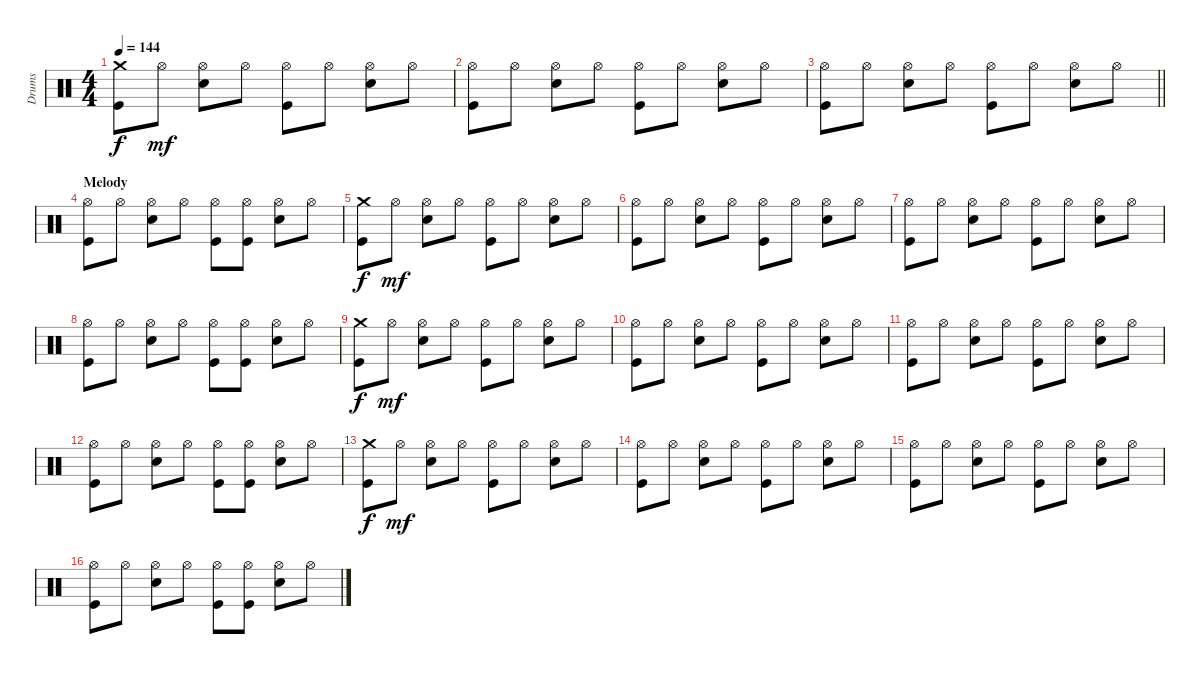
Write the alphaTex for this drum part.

\track ("Drums" "Drums") {instrument percussion}
\staff {score}
\articulation defaults
\ts (4 4)
\tempo 144
\clef neutral
\ks c
("Crash medium (hit)" "Kick (hit)").8{dy f} "Hi-Hat (open)".8{dy mf} ("Hi-Hat (open)" "Snare (hit) 2").8 "Hi-Hat (open)".8 ("Hi-Hat (open)" "Kick (hit)").8 "Hi-Hat (open)".8 ("Hi-Hat (open)" "Snare (hit) 2").8 "Hi-Hat (open)".8 |
("Hi-Hat (open)" "Kick (hit)").8 "Hi-Hat (open)".8 ("Hi-Hat (open)" "Snare (hit) 2").8 "Hi-Hat (open)".8 ("Hi-Hat (open)" "Kick (hit)").8 "Hi-Hat (open)".8 ("Hi-Hat (open)" "Snare (hit) 2").8 "Hi-Hat (open)".8 |
\barLineRight lightlight
("Hi-Hat (open)" "Kick (hit)").8 "Hi-Hat (open)".8 ("Hi-Hat (open)" "Snare (hit) 2").8 "Hi-Hat (open)".8 ("Hi-Hat (open)" "Kick (hit)").8 "Hi-Hat (open)".8 ("Hi-Hat (open)" "Snare (hit) 2").8 "Hi-Hat (open)".8 |
\section ("" "Melody")
("Hi-Hat (open)" "Kick (hit)").8 "Hi-Hat (open)".8 ("Hi-Hat (open)" "Snare (hit) 2").8 "Hi-Hat (open)".8 ("Hi-Hat (open)" "Kick (hit)").8 ("Hi-Hat (open)" "Kick (hit)").8 ("Hi-Hat (open)" "Snare (hit) 2").8 "Hi-Hat (open)".8 |
("Crash medium (hit)" "Kick (hit)").8{dy f} "Hi-Hat (open)".8{dy mf} ("Hi-Hat (open)" "Snare (hit) 2").8 "Hi-Hat (open)".8 ("Hi-Hat (open)" "Kick (hit)").8 "Hi-Hat (open)".8 ("Hi-Hat (open)" "Snare (hit) 2").8 "Hi-Hat (open)".8 |
("Hi-Hat (open)" "Kick (hit)").8 "Hi-Hat (open)".8 ("Hi-Hat (open)" "Snare (hit) 2").8 "Hi-Hat (open)".8 ("Hi-Hat (open)" "Kick (hit)").8 "Hi-Hat (open)".8 ("Hi-Hat (open)" "Snare (hit) 2").8 "Hi-Hat (open)".8 |
("Hi-Hat (open)" "Kick (hit)").8 "Hi-Hat (open)".8 ("Hi-Hat (open)" "Snare (hit) 2").8 "Hi-Hat (open)".8 ("Hi-Hat (open)" "Kick (hit)").8 "Hi-Hat (open)".8 ("Hi-Hat (open)" "Snare (hit) 2").8 "Hi-Hat (open)".8 |
("Hi-Hat (open)" "Kick (hit)").8 "Hi-Hat (open)".8 ("Hi-Hat (open)" "Snare (hit) 2").8 "Hi-Hat (open)".8 ("Hi-Hat (open)" "Kick (hit)").8 ("Hi-Hat (open)" "Kick (hit)").8 ("Hi-Hat (open)" "Snare (hit) 2").8 "Hi-Hat (open)".8 |
("Crash medium (hit)" "Kick (hit)").8{dy f} "Hi-Hat (open)".8{dy mf} ("Hi-Hat (open)" "Snare (hit) 2").8 "Hi-Hat (open)".8 ("Hi-Hat (open)" "Kick (hit)").8 "Hi-Hat (open)".8 ("Hi-Hat (open)" "Snare (hit) 2").8 "Hi-Hat (open)".8 |
("Hi-Hat (open)" "Kick (hit)").8 "Hi-Hat (open)".8 ("Hi-Hat (open)" "Snare (hit) 2").8 "Hi-Hat (open)".8 ("Hi-Hat (open)" "Kick (hit)").8 "Hi-Hat (open)".8 ("Hi-Hat (open)" "Snare (hit) 2").8 "Hi-Hat (open)".8 |
("Hi-Hat (open)" "Kick (hit)").8 "Hi-Hat (open)".8 ("Hi-Hat (open)" "Snare (hit) 2").8 "Hi-Hat (open)".8 ("Hi-Hat (open)" "Kick (hit)").8 "Hi-Hat (open)".8 ("Hi-Hat (open)" "Snare (hit) 2").8 "Hi-Hat (open)".8 |
("Hi-Hat (open)" "Kick (hit)").8 "Hi-Hat (open)".8 ("Hi-Hat (open)" "Snare (hit) 2").8 "Hi-Hat (open)".8 ("Hi-Hat (open)" "Kick (hit)").8 ("Hi-Hat (open)" "Kick (hit)").8 ("Hi-Hat (open)" "Snare (hit) 2").8 "Hi-Hat (open)".8 |
("Crash medium (hit)" "Kick (hit)").8{dy f} "Hi-Hat (open)".8{dy mf} ("Hi-Hat (open)" "Snare (hit) 2").8 "Hi-Hat (open)".8 ("Hi-Hat (open)" "Kick (hit)").8 "Hi-Hat (open)".8 ("Hi-Hat (open)" "Snare (hit) 2").8 "Hi-Hat (open)".8 |
("Hi-Hat (open)" "Kick (hit)").8 "Hi-Hat (open)".8 ("Hi-Hat (open)" "Snare (hit) 2").8 "Hi-Hat (open)".8 ("Hi-Hat (open)" "Kick (hit)").8 "Hi-Hat (open)".8 ("Hi-Hat (open)" "Snare (hit) 2").8 "Hi-Hat (open)".8 |
("Hi-Hat (open)" "Kick (hit)").8 "Hi-Hat (open)".8 ("Hi-Hat (open)" "Snare (hit) 2").8 "Hi-Hat (open)".8 ("Hi-Hat (open)" "Kick (hit)").8 "Hi-Hat (open)".8 ("Hi-Hat (open)" "Snare (hit) 2").8 "Hi-Hat (open)".8 |
("Hi-Hat (open)" "Kick (hit)").8 "Hi-Hat (open)".8 ("Hi-Hat (open)" "Snare (hit) 2").8 "Hi-Hat (open)".8 ("Hi-Hat (open)" "Kick (hit)").8 ("Hi-Hat (open)" "Kick (hit)").8 ("Hi-Hat (open)" "Snare (hit) 2").8 "Hi-Hat (open)".8
